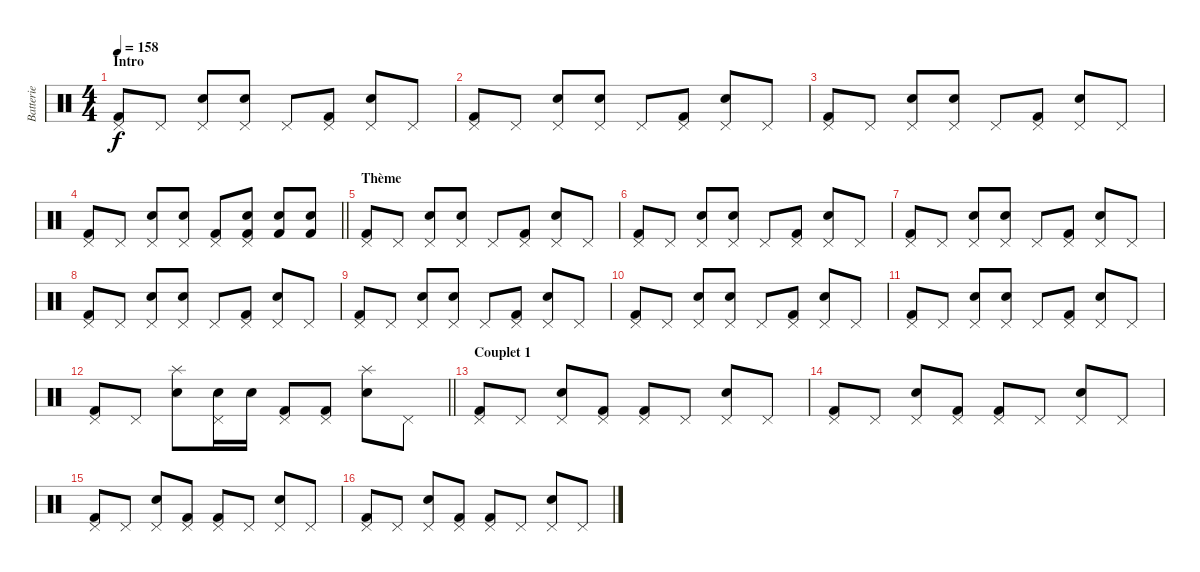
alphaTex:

\track ("Batterie" "Batterie") {instrument percussion}
\staff {score}
\articulation defaults
\ts (4 4)
\section ("" "Intro")
\tempo 158
\clef neutral
\ks c
("Pedal Hi-Hat (hit)" "Kick (hit) 2").8{dy f volume 6} "Pedal Hi-Hat (hit)".8 ("Pedal Hi-Hat (hit)" "Snare (hit) 2").8 ("Pedal Hi-Hat (hit)" "Snare (hit) 2").8 "Pedal Hi-Hat (hit)".8 ("Pedal Hi-Hat (hit)" "Kick (hit) 2").8 ("Pedal Hi-Hat (hit)" "Snare (hit) 2").8 "Pedal Hi-Hat (hit)".8 |
("Pedal Hi-Hat (hit)" "Kick (hit) 2").8 "Pedal Hi-Hat (hit)".8 ("Pedal Hi-Hat (hit)" "Snare (hit) 2").8 ("Pedal Hi-Hat (hit)" "Snare (hit) 2").8 "Pedal Hi-Hat (hit)".8 ("Pedal Hi-Hat (hit)" "Kick (hit) 2").8 ("Pedal Hi-Hat (hit)" "Snare (hit) 2").8 "Pedal Hi-Hat (hit)".8 |
("Pedal Hi-Hat (hit)" "Kick (hit) 2").8 "Pedal Hi-Hat (hit)".8 ("Pedal Hi-Hat (hit)" "Snare (hit) 2").8 ("Pedal Hi-Hat (hit)" "Snare (hit) 2").8 "Pedal Hi-Hat (hit)".8 ("Pedal Hi-Hat (hit)" "Kick (hit) 2").8 ("Pedal Hi-Hat (hit)" "Snare (hit) 2").8 "Pedal Hi-Hat (hit)".8 |
\barLineRight lightlight
("Pedal Hi-Hat (hit)" "Kick (hit) 2").8 "Pedal Hi-Hat (hit)".8 ("Pedal Hi-Hat (hit)" "Snare (hit) 2").8 ("Pedal Hi-Hat (hit)" "Snare (hit) 2").8 ("Pedal Hi-Hat (hit)" "Kick (hit) 2").8 ("Pedal Hi-Hat (hit)" "Electric Snare (hit)" "Kick (hit) 2").8 ("Electric Snare (hit)" "Kick (hit) 2").8 ("Electric Snare (hit)" "Kick (hit) 2").8 |
\section ("" "Thème")
("Pedal Hi-Hat (hit)" "Kick (hit) 2").8{volume 15} "Pedal Hi-Hat (hit)".8 ("Pedal Hi-Hat (hit)" "Electric Snare (hit)").8 ("Pedal Hi-Hat (hit)" "Electric Snare (hit)").8 "Pedal Hi-Hat (hit)".8 ("Pedal Hi-Hat (hit)" "Kick (hit) 2").8 ("Pedal Hi-Hat (hit)" "Electric Snare (hit)").8 "Pedal Hi-Hat (hit)".8 |
("Pedal Hi-Hat (hit)" "Kick (hit) 2").8 "Pedal Hi-Hat (hit)".8 ("Pedal Hi-Hat (hit)" "Electric Snare (hit)").8 ("Pedal Hi-Hat (hit)" "Electric Snare (hit)").8 "Pedal Hi-Hat (hit)".8 ("Pedal Hi-Hat (hit)" "Kick (hit) 2").8 ("Pedal Hi-Hat (hit)" "Electric Snare (hit)").8 "Pedal Hi-Hat (hit)".8 |
("Pedal Hi-Hat (hit)" "Kick (hit) 2").8 "Pedal Hi-Hat (hit)".8 ("Pedal Hi-Hat (hit)" "Electric Snare (hit)").8 ("Pedal Hi-Hat (hit)" "Electric Snare (hit)").8 "Pedal Hi-Hat (hit)".8 ("Pedal Hi-Hat (hit)" "Kick (hit) 2").8 ("Pedal Hi-Hat (hit)" "Electric Snare (hit)").8 "Pedal Hi-Hat (hit)".8 |
("Pedal Hi-Hat (hit)" "Kick (hit) 2").8 "Pedal Hi-Hat (hit)".8 ("Pedal Hi-Hat (hit)" "Electric Snare (hit)").8 ("Pedal Hi-Hat (hit)" "Electric Snare (hit)").8 "Pedal Hi-Hat (hit)".8 ("Pedal Hi-Hat (hit)" "Kick (hit) 2").8 ("Pedal Hi-Hat (hit)" "Electric Snare (hit)").8 "Pedal Hi-Hat (hit)".8 |
("Pedal Hi-Hat (hit)" "Kick (hit) 2").8 "Pedal Hi-Hat (hit)".8 ("Pedal Hi-Hat (hit)" "Electric Snare (hit)").8 ("Pedal Hi-Hat (hit)" "Electric Snare (hit)").8 "Pedal Hi-Hat (hit)".8 ("Pedal Hi-Hat (hit)" "Kick (hit) 2").8 ("Pedal Hi-Hat (hit)" "Electric Snare (hit)").8 "Pedal Hi-Hat (hit)".8 |
("Pedal Hi-Hat (hit)" "Kick (hit) 2").8 "Pedal Hi-Hat (hit)".8 ("Pedal Hi-Hat (hit)" "Electric Snare (hit)").8 ("Pedal Hi-Hat (hit)" "Electric Snare (hit)").8 "Pedal Hi-Hat (hit)".8 ("Pedal Hi-Hat (hit)" "Kick (hit) 2").8 ("Pedal Hi-Hat (hit)" "Electric Snare (hit)").8 "Pedal Hi-Hat (hit)".8 |
("Pedal Hi-Hat (hit)" "Kick (hit) 2").8 "Pedal Hi-Hat (hit)".8 ("Pedal Hi-Hat (hit)" "Electric Snare (hit)").8 ("Pedal Hi-Hat (hit)" "Electric Snare (hit)").8 "Pedal Hi-Hat (hit)".8 ("Pedal Hi-Hat (hit)" "Kick (hit) 2").8 ("Pedal Hi-Hat (hit)" "Electric Snare (hit)").8 "Pedal Hi-Hat (hit)".8 |
\barLineRight lightlight
("Pedal Hi-Hat (hit)" "Kick (hit) 2").8 "Pedal Hi-Hat (hit)".8 ("Splash (hit)" "Electric Snare (hit)").8 ("Pedal Hi-Hat (hit)" "Electric Snare (hit)").16 "Electric Snare (hit)".16 ("Pedal Hi-Hat (hit)" "Kick (hit) 2").8 ("Pedal Hi-Hat (hit)" "Kick (hit) 2").8 ("Splash (hit)" "Electric Snare (hit)").8 "Pedal Hi-Hat (hit)".8 |
\section ("" "Couplet 1")
("Pedal Hi-Hat (hit)" "Kick (hit) 2").8 "Pedal Hi-Hat (hit)".8 ("Pedal Hi-Hat (hit)" "Electric Snare (hit)").8 ("Pedal Hi-Hat (hit)" "Kick (hit) 2").8 ("Pedal Hi-Hat (hit)" "Kick (hit) 2").8 "Pedal Hi-Hat (hit)".8 ("Pedal Hi-Hat (hit)" "Electric Snare (hit)").8 "Pedal Hi-Hat (hit)".8 |
("Pedal Hi-Hat (hit)" "Kick (hit) 2").8 "Pedal Hi-Hat (hit)".8 ("Pedal Hi-Hat (hit)" "Electric Snare (hit)").8 ("Pedal Hi-Hat (hit)" "Kick (hit) 2").8 ("Pedal Hi-Hat (hit)" "Kick (hit) 2").8 "Pedal Hi-Hat (hit)".8 ("Pedal Hi-Hat (hit)" "Electric Snare (hit)").8 "Pedal Hi-Hat (hit)".8 |
("Pedal Hi-Hat (hit)" "Kick (hit) 2").8 "Pedal Hi-Hat (hit)".8 ("Pedal Hi-Hat (hit)" "Electric Snare (hit)").8 ("Pedal Hi-Hat (hit)" "Kick (hit) 2").8 ("Pedal Hi-Hat (hit)" "Kick (hit) 2").8 "Pedal Hi-Hat (hit)".8 ("Pedal Hi-Hat (hit)" "Electric Snare (hit)").8 "Pedal Hi-Hat (hit)".8 |
("Pedal Hi-Hat (hit)" "Kick (hit) 2").8 "Pedal Hi-Hat (hit)".8 ("Pedal Hi-Hat (hit)" "Electric Snare (hit)").8 ("Pedal Hi-Hat (hit)" "Kick (hit) 2").8 ("Pedal Hi-Hat (hit)" "Kick (hit) 2").8 "Pedal Hi-Hat (hit)".8 ("Pedal Hi-Hat (hit)" "Electric Snare (hit)").8 "Pedal Hi-Hat (hit)".8
